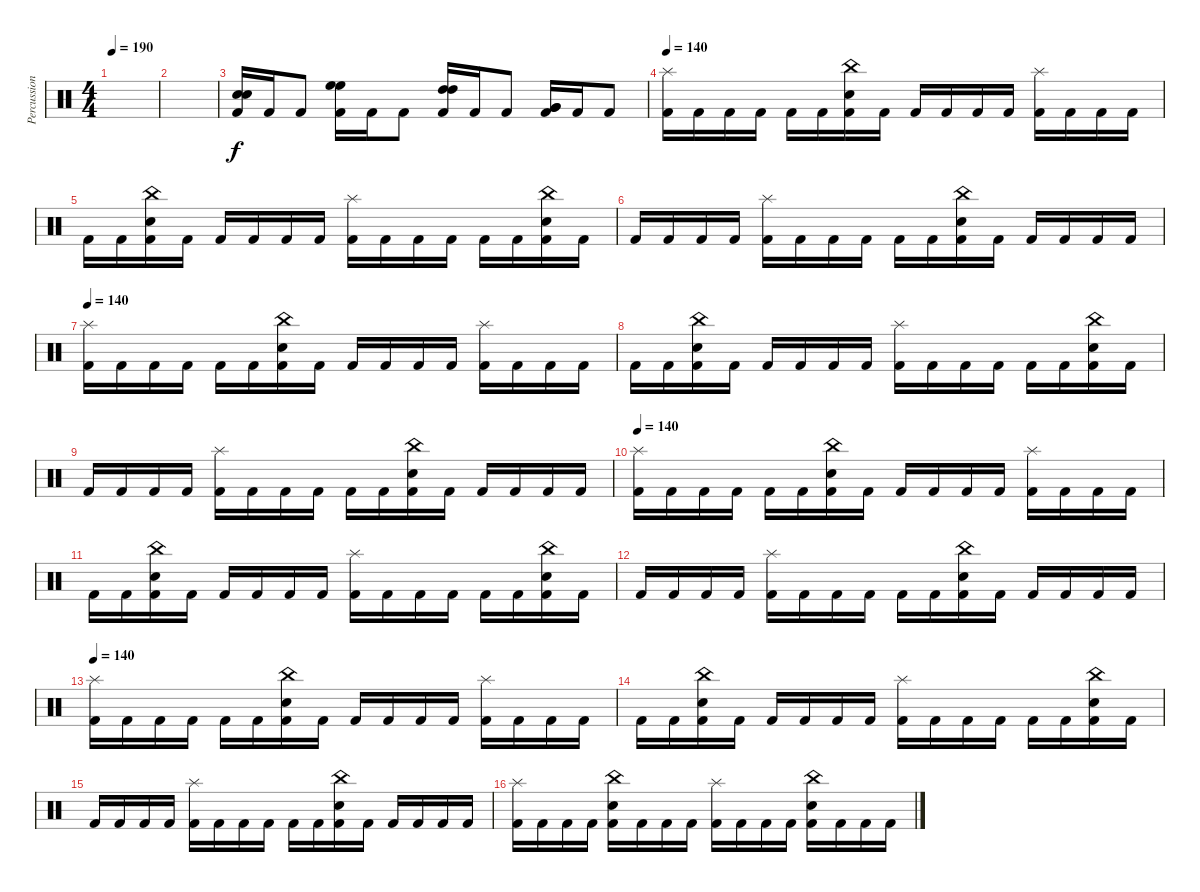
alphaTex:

\track ("Percussion" "Percussion") {instrument percussion}
\staff {score}
\articulation defaults
\ts (4 4)
\tempo 190
\clef neutral
\ks c
|
|
("Electric Snare (hit)" "Electric Snare (hit)" "Kick (hit) 2").16 "Kick (hit) 2".16 "Kick (hit) 2".8 ("High Floor Tom (hit)" "High Floor Tom (hit)" "Kick (hit) 2").16 "Kick (hit) 2".16 "Kick (hit) 2".8 ("High Tom (hit)" "High Tom (hit)" "Kick (hit) 2").16 "Kick (hit) 2".16 "Kick (hit) 2".8 ("Very Low Tom (hit)" "Very Low Tom (hit)" "Kick (hit) 2").16 "Kick (hit) 2".16 "Kick (hit) 2".8 |
\tempo 140
("Kick (hit) 2" "Splash (hit)").16 "Kick (hit) 2".16 "Kick (hit) 2".16 "Kick (hit) 2".16 "Kick (hit) 2".16 "Kick (hit) 2".16 ("Kick (hit) 2" "China (hit)" "Electric Snare (hit)").16 "Kick (hit) 2".16 "Kick (hit) 2".16 "Kick (hit) 2".16 "Kick (hit) 2".16 "Kick (hit) 2".16 ("Kick (hit) 2" "Splash (hit)").16 "Kick (hit) 2".16 "Kick (hit) 2".16 "Kick (hit) 2".16 |
"Kick (hit) 2".16 "Kick (hit) 2".16 ("Kick (hit) 2" "China (hit)" "Electric Snare (hit)").16 "Kick (hit) 2".16 "Kick (hit) 2".16 "Kick (hit) 2".16 "Kick (hit) 2".16 "Kick (hit) 2".16 ("Kick (hit) 2" "Splash (hit)").16 "Kick (hit) 2".16 "Kick (hit) 2".16 "Kick (hit) 2".16 "Kick (hit) 2".16 "Kick (hit) 2".16 ("Kick (hit) 2" "China (hit)" "Electric Snare (hit)").16 "Kick (hit) 2".16 |
"Kick (hit) 2".16 "Kick (hit) 2".16 "Kick (hit) 2".16 "Kick (hit) 2".16 ("Kick (hit) 2" "Splash (hit)").16 "Kick (hit) 2".16 "Kick (hit) 2".16 "Kick (hit) 2".16 "Kick (hit) 2".16 "Kick (hit) 2".16 ("Kick (hit) 2" "China (hit)" "Electric Snare (hit)").16 "Kick (hit) 2".16 "Kick (hit) 2".16 "Kick (hit) 2".16 "Kick (hit) 2".16 "Kick (hit) 2".16 |
\tempo 140
("Kick (hit) 2" "Splash (hit)").16 "Kick (hit) 2".16 "Kick (hit) 2".16 "Kick (hit) 2".16 "Kick (hit) 2".16 "Kick (hit) 2".16 ("Kick (hit) 2" "China (hit)" "Electric Snare (hit)").16 "Kick (hit) 2".16 "Kick (hit) 2".16 "Kick (hit) 2".16 "Kick (hit) 2".16 "Kick (hit) 2".16 ("Kick (hit) 2" "Splash (hit)").16 "Kick (hit) 2".16 "Kick (hit) 2".16 "Kick (hit) 2".16 |
"Kick (hit) 2".16 "Kick (hit) 2".16 ("Kick (hit) 2" "China (hit)" "Electric Snare (hit)").16 "Kick (hit) 2".16 "Kick (hit) 2".16 "Kick (hit) 2".16 "Kick (hit) 2".16 "Kick (hit) 2".16 ("Kick (hit) 2" "Splash (hit)").16 "Kick (hit) 2".16 "Kick (hit) 2".16 "Kick (hit) 2".16 "Kick (hit) 2".16 "Kick (hit) 2".16 ("Kick (hit) 2" "China (hit)" "Electric Snare (hit)").16 "Kick (hit) 2".16 |
"Kick (hit) 2".16 "Kick (hit) 2".16 "Kick (hit) 2".16 "Kick (hit) 2".16 ("Kick (hit) 2" "Splash (hit)").16 "Kick (hit) 2".16 "Kick (hit) 2".16 "Kick (hit) 2".16 "Kick (hit) 2".16 "Kick (hit) 2".16 ("Kick (hit) 2" "China (hit)" "Electric Snare (hit)").16 "Kick (hit) 2".16 "Kick (hit) 2".16 "Kick (hit) 2".16 "Kick (hit) 2".16 "Kick (hit) 2".16 |
\tempo 140
("Kick (hit) 2" "Splash (hit)").16 "Kick (hit) 2".16 "Kick (hit) 2".16 "Kick (hit) 2".16 "Kick (hit) 2".16 "Kick (hit) 2".16 ("Kick (hit) 2" "China (hit)" "Electric Snare (hit)").16 "Kick (hit) 2".16 "Kick (hit) 2".16 "Kick (hit) 2".16 "Kick (hit) 2".16 "Kick (hit) 2".16 ("Kick (hit) 2" "Splash (hit)").16 "Kick (hit) 2".16 "Kick (hit) 2".16 "Kick (hit) 2".16 |
"Kick (hit) 2".16 "Kick (hit) 2".16 ("Kick (hit) 2" "China (hit)" "Electric Snare (hit)").16 "Kick (hit) 2".16 "Kick (hit) 2".16 "Kick (hit) 2".16 "Kick (hit) 2".16 "Kick (hit) 2".16 ("Kick (hit) 2" "Splash (hit)").16 "Kick (hit) 2".16 "Kick (hit) 2".16 "Kick (hit) 2".16 "Kick (hit) 2".16 "Kick (hit) 2".16 ("Kick (hit) 2" "China (hit)" "Electric Snare (hit)").16 "Kick (hit) 2".16 |
"Kick (hit) 2".16 "Kick (hit) 2".16 "Kick (hit) 2".16 "Kick (hit) 2".16 ("Kick (hit) 2" "Splash (hit)").16 "Kick (hit) 2".16 "Kick (hit) 2".16 "Kick (hit) 2".16 "Kick (hit) 2".16 "Kick (hit) 2".16 ("Kick (hit) 2" "China (hit)" "Electric Snare (hit)").16 "Kick (hit) 2".16 "Kick (hit) 2".16 "Kick (hit) 2".16 "Kick (hit) 2".16 "Kick (hit) 2".16 |
\tempo 140
("Kick (hit) 2" "Splash (hit)").16 "Kick (hit) 2".16 "Kick (hit) 2".16 "Kick (hit) 2".16 "Kick (hit) 2".16 "Kick (hit) 2".16 ("Kick (hit) 2" "China (hit)" "Electric Snare (hit)").16 "Kick (hit) 2".16 "Kick (hit) 2".16 "Kick (hit) 2".16 "Kick (hit) 2".16 "Kick (hit) 2".16 ("Kick (hit) 2" "Splash (hit)").16 "Kick (hit) 2".16 "Kick (hit) 2".16 "Kick (hit) 2".16 |
"Kick (hit) 2".16 "Kick (hit) 2".16 ("Kick (hit) 2" "China (hit)" "Electric Snare (hit)").16 "Kick (hit) 2".16 "Kick (hit) 2".16 "Kick (hit) 2".16 "Kick (hit) 2".16 "Kick (hit) 2".16 ("Kick (hit) 2" "Splash (hit)").16 "Kick (hit) 2".16 "Kick (hit) 2".16 "Kick (hit) 2".16 "Kick (hit) 2".16 "Kick (hit) 2".16 ("Kick (hit) 2" "China (hit)" "Electric Snare (hit)").16 "Kick (hit) 2".16 |
"Kick (hit) 2".16 "Kick (hit) 2".16 "Kick (hit) 2".16 "Kick (hit) 2".16 ("Kick (hit) 2" "Splash (hit)").16 "Kick (hit) 2".16 "Kick (hit) 2".16 "Kick (hit) 2".16 "Kick (hit) 2".16 "Kick (hit) 2".16 ("Kick (hit) 2" "China (hit)" "Electric Snare (hit)").16 "Kick (hit) 2".16 "Kick (hit) 2".16 "Kick (hit) 2".16 "Kick (hit) 2".16 "Kick (hit) 2".16 |
("Kick (hit) 2" "Splash (hit)").16 "Kick (hit) 2".16 "Kick (hit) 2".16 "Kick (hit) 2".16 ("Kick (hit) 2" "China (hit)" "Electric Snare (hit)").16 "Kick (hit) 2".16 "Kick (hit) 2".16 "Kick (hit) 2".16 ("Kick (hit) 2" "Splash (hit)").16 "Kick (hit) 2".16 "Kick (hit) 2".16 "Kick (hit) 2".16 ("Kick (hit) 2" "China (hit)" "Electric Snare (hit)").16 "Kick (hit) 2".16 "Kick (hit) 2".16 "Kick (hit) 2".16
